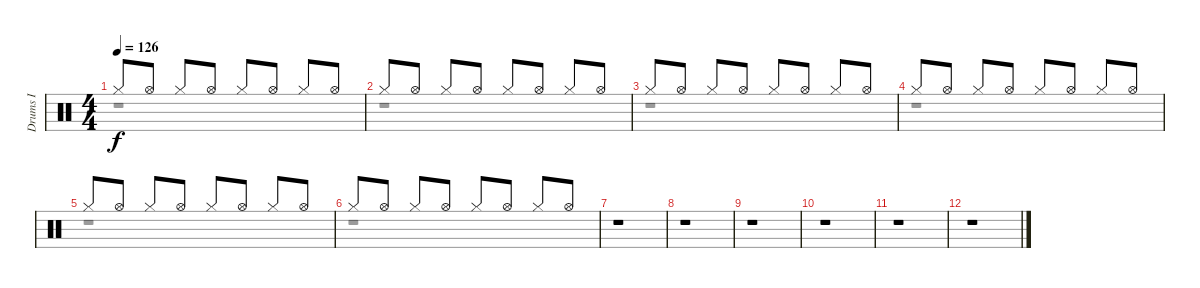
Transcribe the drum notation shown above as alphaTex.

\track ("Drums I" "Drums I") {instrument percussion}
\staff {score}
\articulation defaults
\voice
\ts (4 4)
\tempo 126
\clef neutral
\ks c "Hi-Hat (closed)".8{dy f} "Hi-Hat (open)".8 "Hi-Hat (closed)".8 "Hi-Hat (open)".8 "Hi-Hat (closed)".8 "Hi-Hat (open)".8 "Hi-Hat (closed)".8 "Hi-Hat (open)".8
|
"Hi-Hat (closed)".8 "Hi-Hat (open)".8 "Hi-Hat (closed)".8 "Hi-Hat (open)".8 "Hi-Hat (closed)".8 "Hi-Hat (open)".8 "Hi-Hat (closed)".8 "Hi-Hat (open)".8 |
"Hi-Hat (closed)".8 "Hi-Hat (open)".8 "Hi-Hat (closed)".8 "Hi-Hat (open)".8 "Hi-Hat (closed)".8 "Hi-Hat (open)".8 "Hi-Hat (closed)".8 "Hi-Hat (open)".8 |
"Hi-Hat (closed)".8 "Hi-Hat (open)".8 "Hi-Hat (closed)".8 "Hi-Hat (open)".8 "Hi-Hat (closed)".8 "Hi-Hat (open)".8 "Hi-Hat (closed)".8 "Hi-Hat (open)".8 |
"Hi-Hat (closed)".8 "Hi-Hat (open)".8 "Hi-Hat (closed)".8 "Hi-Hat (open)".8 "Hi-Hat (closed)".8 "Hi-Hat (open)".8 "Hi-Hat (closed)".8 "Hi-Hat (open)".8 |
"Hi-Hat (closed)".8 "Hi-Hat (open)".8 "Hi-Hat (closed)".8 "Hi-Hat (open)".8 "Hi-Hat (closed)".8 "Hi-Hat (open)".8 "Hi-Hat (closed)".8 "Hi-Hat (open)".8 |
r.1 |
r.1 |
r.1 |
r.1 |
r.1 |
r.1
\voice
\clef neutral
\ottava regular
\simile none
\ks c
r.1{dy fff} |
r.1 |
r.1 |
r.1 |
r.1 |
r.1 |
r.1 |
r.1 |
r.1 |
r.1 |
r.1 |
r.1
